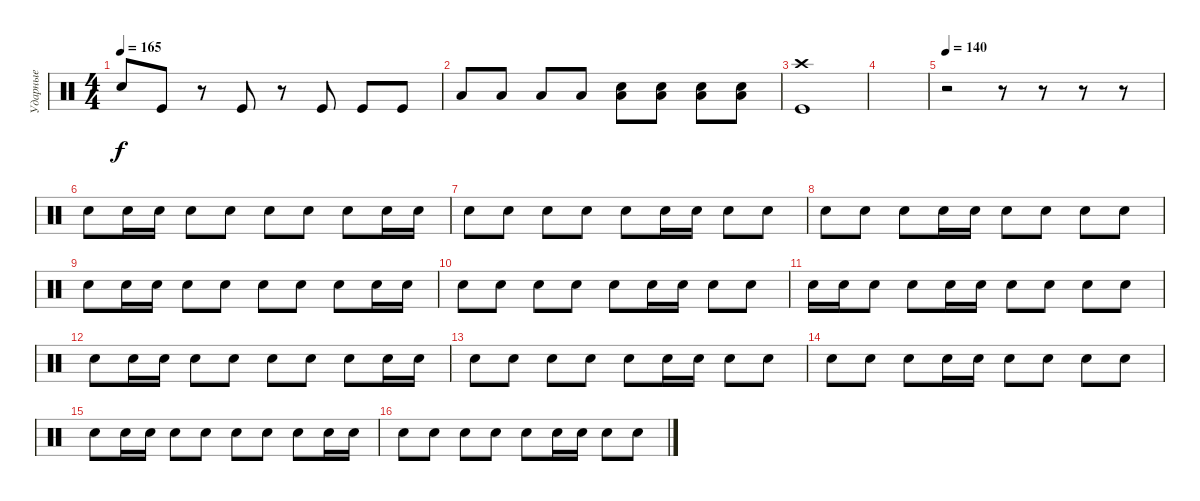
\track ("Ударные" "Ударные") {instrument percussion}
\staff {score}
\articulation defaults
\ts (4 4)
\tempo 165
\clef neutral
\ks c "Electric Snare (hit)".8{dy f} "Kick (hit)".8
r.8 "Kick (hit)".8 r.8 "Kick (hit)".8 "Kick (hit)".8 "Kick (hit)".8 |
"Low Tom (hit)".8 "Low Tom (hit)".8 "Low Tom (hit)".8 "Low Tom (hit)".8 ("Electric Snare (hit)" "Low Tom (hit)").8 ("Electric Snare (hit)" "Low Tom (hit)").8 ("Electric Snare (hit)" "Low Tom (hit)").8 ("Electric Snare (hit)" "Low Tom (hit)").8 |
("Crash high (hit)" "Kick (hit)").1 |
|
\tempo 140
r.2 r.8 r.8 r.8 r.8 |
"Electric Snare (hit)".8 "Electric Snare (hit)".16 "Electric Snare (hit)".16 "Electric Snare (hit)".8 "Electric Snare (hit)".8 "Electric Snare (hit)".8 "Electric Snare (hit)".8 "Electric Snare (hit)".8 "Electric Snare (hit)".16 "Electric Snare (hit)".16 |
"Electric Snare (hit)".8 "Electric Snare (hit)".8 "Electric Snare (hit)".8 "Electric Snare (hit)".8 "Electric Snare (hit)".8 "Electric Snare (hit)".16 "Electric Snare (hit)".16 "Electric Snare (hit)".8 "Electric Snare (hit)".8 |
"Electric Snare (hit)".8 "Electric Snare (hit)".8 "Electric Snare (hit)".8 "Electric Snare (hit)".16 "Electric Snare (hit)".16 "Electric Snare (hit)".8 "Electric Snare (hit)".8 "Electric Snare (hit)".8 "Electric Snare (hit)".8 |
"Electric Snare (hit)".8 "Electric Snare (hit)".16 "Electric Snare (hit)".16 "Electric Snare (hit)".8 "Electric Snare (hit)".8 "Electric Snare (hit)".8 "Electric Snare (hit)".8 "Electric Snare (hit)".8 "Electric Snare (hit)".16 "Electric Snare (hit)".16 |
"Electric Snare (hit)".8 "Electric Snare (hit)".8 "Electric Snare (hit)".8 "Electric Snare (hit)".8 "Electric Snare (hit)".8 "Electric Snare (hit)".16 "Electric Snare (hit)".16 "Electric Snare (hit)".8 "Electric Snare (hit)".8 |
"Electric Snare (hit)".16 "Electric Snare (hit)".16 "Electric Snare (hit)".8 "Electric Snare (hit)".8 "Electric Snare (hit)".16 "Electric Snare (hit)".16 "Electric Snare (hit)".8 "Electric Snare (hit)".8 "Electric Snare (hit)".8 "Electric Snare (hit)".8 |
"Electric Snare (hit)".8 "Electric Snare (hit)".16 "Electric Snare (hit)".16 "Electric Snare (hit)".8 "Electric Snare (hit)".8 "Electric Snare (hit)".8 "Electric Snare (hit)".8 "Electric Snare (hit)".8 "Electric Snare (hit)".16 "Electric Snare (hit)".16 |
"Electric Snare (hit)".8 "Electric Snare (hit)".8 "Electric Snare (hit)".8 "Electric Snare (hit)".8 "Electric Snare (hit)".8 "Electric Snare (hit)".16 "Electric Snare (hit)".16 "Electric Snare (hit)".8 "Electric Snare (hit)".8 |
"Electric Snare (hit)".8 "Electric Snare (hit)".8 "Electric Snare (hit)".8 "Electric Snare (hit)".16 "Electric Snare (hit)".16 "Electric Snare (hit)".8 "Electric Snare (hit)".8 "Electric Snare (hit)".8 "Electric Snare (hit)".8 |
"Electric Snare (hit)".8 "Electric Snare (hit)".16 "Electric Snare (hit)".16 "Electric Snare (hit)".8 "Electric Snare (hit)".8 "Electric Snare (hit)".8 "Electric Snare (hit)".8 "Electric Snare (hit)".8 "Electric Snare (hit)".16 "Electric Snare (hit)".16 |
"Electric Snare (hit)".8 "Electric Snare (hit)".8 "Electric Snare (hit)".8 "Electric Snare (hit)".8 "Electric Snare (hit)".8 "Electric Snare (hit)".16 "Electric Snare (hit)".16 "Electric Snare (hit)".8 "Electric Snare (hit)".8
